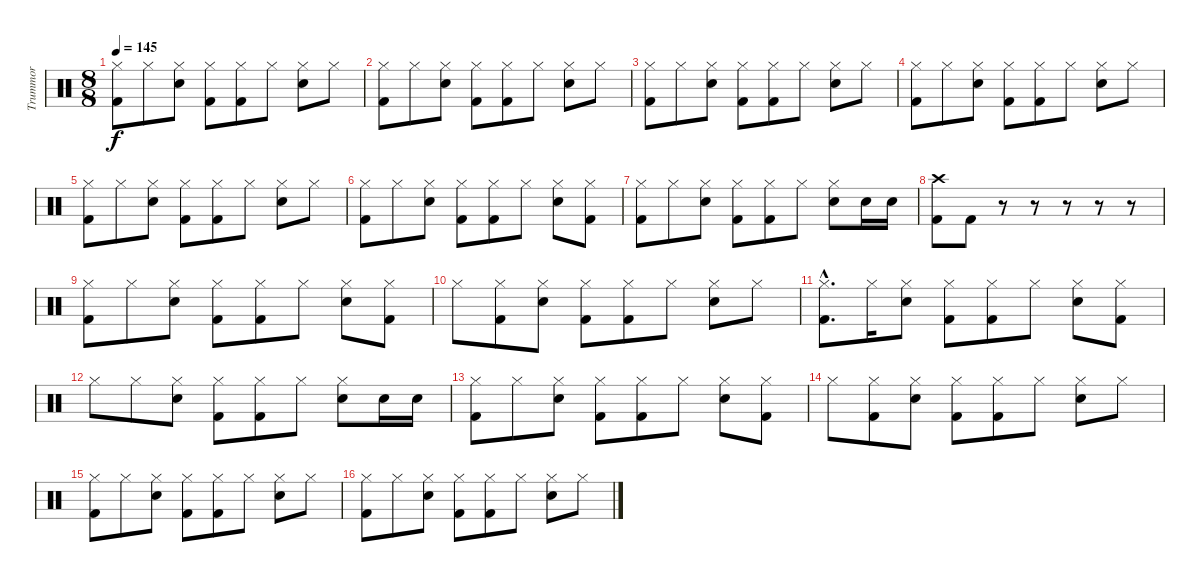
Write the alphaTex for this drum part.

\track ("Trummor" "Trummor") {instrument percussion}
\staff {score}
\articulation defaults
\ts (8 8)
\tempo 145
\clef neutral
\ks c
("Kick (hit) 2" "Hi-Hat (closed)").8{dy f} "Hi-Hat (closed)".8 ("Snare (hit) 2" "Hi-Hat (closed)").8 ("Kick (hit) 2" "Hi-Hat (closed)").8 ("Kick (hit) 2" "Hi-Hat (closed)").8 "Hi-Hat (closed)".8 ("Snare (hit) 2" "Hi-Hat (closed)").8 "Hi-Hat (closed)".8 |
("Kick (hit) 2" "Hi-Hat (closed)").8 "Hi-Hat (closed)".8 ("Snare (hit) 2" "Hi-Hat (closed)").8 ("Kick (hit) 2" "Hi-Hat (closed)").8 ("Kick (hit) 2" "Hi-Hat (closed)").8 "Hi-Hat (closed)".8 ("Snare (hit) 2" "Hi-Hat (closed)").8 "Hi-Hat (closed)".8 |
("Kick (hit) 2" "Hi-Hat (closed)").8 "Hi-Hat (closed)".8 ("Snare (hit) 2" "Hi-Hat (closed)").8 ("Kick (hit) 2" "Hi-Hat (closed)").8 ("Kick (hit) 2" "Hi-Hat (closed)").8 "Hi-Hat (closed)".8 ("Snare (hit) 2" "Hi-Hat (closed)").8 "Hi-Hat (closed)".8 |
("Kick (hit) 2" "Hi-Hat (closed)").8 "Hi-Hat (closed)".8 ("Snare (hit) 2" "Hi-Hat (closed)").8 ("Kick (hit) 2" "Hi-Hat (closed)").8 ("Kick (hit) 2" "Hi-Hat (closed)").8 "Hi-Hat (closed)".8 ("Snare (hit) 2" "Hi-Hat (closed)").8 "Hi-Hat (closed)".8 |
("Kick (hit) 2" "Hi-Hat (closed)").8 "Hi-Hat (closed)".8 ("Snare (hit) 2" "Hi-Hat (closed)").8 ("Kick (hit) 2" "Hi-Hat (closed)").8 ("Kick (hit) 2" "Hi-Hat (closed)").8 "Hi-Hat (closed)".8 ("Snare (hit) 2" "Hi-Hat (closed)").8 "Hi-Hat (closed)".8 |
("Kick (hit) 2" "Hi-Hat (closed)").8 "Hi-Hat (closed)".8 ("Snare (hit) 2" "Hi-Hat (closed)").8 ("Kick (hit) 2" "Hi-Hat (closed)").8 ("Kick (hit) 2" "Hi-Hat (closed)").8 "Hi-Hat (closed)".8 ("Snare (hit) 2" "Hi-Hat (closed)").8 ("Kick (hit) 2" "Hi-Hat (closed)").8 |
("Kick (hit) 2" "Hi-Hat (closed)").8 "Hi-Hat (closed)".8 ("Snare (hit) 2" "Hi-Hat (closed)").8 ("Kick (hit) 2" "Hi-Hat (closed)").8 ("Kick (hit) 2" "Hi-Hat (closed)").8 "Hi-Hat (closed)".8 ("Snare (hit) 2" "Hi-Hat (closed)").8 "Snare (hit) 2".16 "Snare (hit) 2".16 |
("Kick (hit) 2" "Crash high (hit)").8 "Kick (hit) 2".8 r.8 r.8 r.8 r.8 r.8 |
("Kick (hit) 2" "Hi-Hat (closed)").8 "Hi-Hat (closed)".8 ("Snare (hit) 2" "Hi-Hat (closed)").8 ("Kick (hit) 2" "Hi-Hat (closed)").8 ("Kick (hit) 2" "Hi-Hat (closed)").8 "Hi-Hat (closed)".8 ("Snare (hit) 2" "Hi-Hat (closed)").8 ("Kick (hit) 2" "Hi-Hat (closed)").8 |
"Hi-Hat (closed)".8 ("Kick (hit) 2" "Hi-Hat (closed)").8 ("Snare (hit) 2" "Hi-Hat (closed)").8 ("Kick (hit) 2" "Hi-Hat (closed)").8 ("Kick (hit) 2" "Hi-Hat (closed)").8 "Hi-Hat (closed)".8 ("Snare (hit) 2" "Hi-Hat (closed)").8 "Hi-Hat (closed)".8 |
("Kick (hit) 2"{hac} "Hi-Hat (closed)"{hac}).8{d} "Hi-Hat (closed)".16 ("Snare (hit) 2" "Hi-Hat (closed)").8 ("Kick (hit) 2" "Hi-Hat (closed)").8 ("Kick (hit) 2" "Hi-Hat (closed)").8 "Hi-Hat (closed)".8 ("Snare (hit) 2" "Hi-Hat (closed)").8 ("Kick (hit) 2" "Hi-Hat (closed)").8 |
"Hi-Hat (closed)".8 "Hi-Hat (closed)".8 ("Snare (hit) 2" "Hi-Hat (closed)").8 ("Kick (hit) 2" "Hi-Hat (closed)").8 ("Kick (hit) 2" "Hi-Hat (closed)").8 "Hi-Hat (closed)".8 ("Snare (hit) 2" "Hi-Hat (closed)").8 "Snare (hit) 2".16 "Snare (hit) 2".16 |
("Kick (hit) 2" "Hi-Hat (closed)").8 "Hi-Hat (closed)".8 ("Snare (hit) 2" "Hi-Hat (closed)").8 ("Kick (hit) 2" "Hi-Hat (closed)").8 ("Kick (hit) 2" "Hi-Hat (closed)").8 "Hi-Hat (closed)".8 ("Snare (hit) 2" "Hi-Hat (closed)").8 ("Kick (hit) 2" "Hi-Hat (closed)").8 |
"Hi-Hat (closed)".8 ("Kick (hit) 2" "Hi-Hat (closed)").8 ("Snare (hit) 2" "Hi-Hat (closed)").8 ("Kick (hit) 2" "Hi-Hat (closed)").8 ("Kick (hit) 2" "Hi-Hat (closed)").8 "Hi-Hat (closed)".8 ("Snare (hit) 2" "Hi-Hat (closed)").8 "Hi-Hat (closed)".8 |
("Kick (hit) 2" "Hi-Hat (closed)").8 "Hi-Hat (closed)".8 ("Snare (hit) 2" "Hi-Hat (closed)").8 ("Kick (hit) 2" "Hi-Hat (closed)").8 ("Kick (hit) 2" "Hi-Hat (closed)").8 "Hi-Hat (closed)".8 ("Snare (hit) 2" "Hi-Hat (closed)").8 "Hi-Hat (closed)".8 |
("Kick (hit) 2" "Hi-Hat (closed)").8 "Hi-Hat (closed)".8 ("Snare (hit) 2" "Hi-Hat (closed)").8 ("Kick (hit) 2" "Hi-Hat (closed)").8 ("Kick (hit) 2" "Hi-Hat (closed)").8 "Hi-Hat (closed)".8 ("Snare (hit) 2" "Hi-Hat (closed)").8 "Hi-Hat (closed)".8
